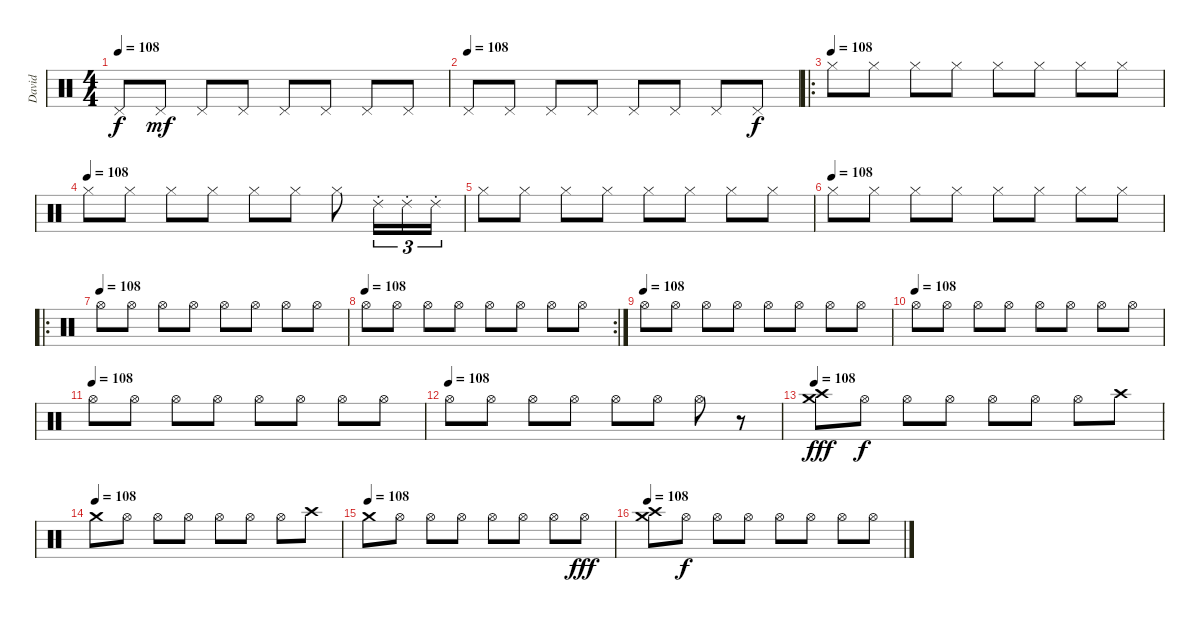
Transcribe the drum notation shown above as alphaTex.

\track ("David" "David") {instrument percussion}
\staff {score}
\articulation defaults
\ts (4 4)
\tempo 108
\clef neutral
\ks c "Pedal Hi-Hat (hit)".8{dy f} "Pedal Hi-Hat (hit)".8{dy mf} "Pedal Hi-Hat (hit)".8 "Pedal Hi-Hat (hit)".8 "Pedal Hi-Hat (hit)".8 "Pedal Hi-Hat (hit)".8 "Pedal Hi-Hat (hit)".8 "Pedal Hi-Hat (hit)".8
|
\tempo (108)
"Pedal Hi-Hat (hit)".8 "Pedal Hi-Hat (hit)".8 "Pedal Hi-Hat (hit)".8 "Pedal Hi-Hat (hit)".8 "Pedal Hi-Hat (hit)".8 "Pedal Hi-Hat (hit)".8 "Pedal Hi-Hat (hit)".8 "Pedal Hi-Hat (hit)".8{dy f} |
\ro
\tempo (108)
"Hi-Hat (closed)".8 "Hi-Hat (closed)".8 "Hi-Hat (closed)".8 "Hi-Hat (closed)".8 "Hi-Hat (closed)".8 "Hi-Hat (closed)".8 "Hi-Hat (closed)".8 "Hi-Hat (closed)".8 |
\tempo (108)
"Hi-Hat (closed)".8 "Hi-Hat (closed)".8 "Hi-Hat (closed)".8 "Hi-Hat (closed)".8 "Hi-Hat (closed)".8 "Hi-Hat (closed)".8 "Hi-Hat (closed)".8 "Ride (choke) 2".16{tu (3 2)} "Ride (choke) 2".16{tu (3 2)} "Ride (choke) 2".16{tu (3 2)} |
"Hi-Hat (closed)".8 "Hi-Hat (closed)".8 "Hi-Hat (closed)".8 "Hi-Hat (closed)".8 "Hi-Hat (closed)".8 "Hi-Hat (closed)".8 "Hi-Hat (closed)".8 "Hi-Hat (closed)".8 |
\tempo (108)
"Hi-Hat (closed)".8 "Hi-Hat (closed)".8 "Hi-Hat (closed)".8 "Hi-Hat (closed)".8 "Hi-Hat (closed)".8 "Hi-Hat (closed)".8 "Hi-Hat (closed)".8 "Hi-Hat (closed)".8 |
\ro
\tempo (108)
"Hi-Hat (open)".8 "Hi-Hat (open)".8 "Hi-Hat (open)".8 "Hi-Hat (open)".8 "Hi-Hat (open)".8 "Hi-Hat (open)".8 "Hi-Hat (open)".8 "Hi-Hat (open)".8 |
\rc 2
\tempo (108)
"Hi-Hat (open)".8 "Hi-Hat (open)".8 "Hi-Hat (open)".8 "Hi-Hat (open)".8 "Hi-Hat (open)".8 "Hi-Hat (open)".8 "Hi-Hat (open)".8 "Hi-Hat (open)".8 |
\tempo (108)
"Hi-Hat (open)".8 "Hi-Hat (open)".8 "Hi-Hat (open)".8 "Hi-Hat (open)".8 "Hi-Hat (open)".8 "Hi-Hat (open)".8 "Hi-Hat (open)".8 "Hi-Hat (open)".8 |
\tempo (108)
"Hi-Hat (open)".8 "Hi-Hat (open)".8 "Hi-Hat (open)".8 "Hi-Hat (open)".8 "Hi-Hat (open)".8 "Hi-Hat (open)".8 "Hi-Hat (open)".8 "Hi-Hat (open)".8 |
\tempo (108)
"Hi-Hat (open)".8 "Hi-Hat (open)".8 "Hi-Hat (open)".8 "Hi-Hat (open)".8 "Hi-Hat (open)".8 "Hi-Hat (open)".8 "Hi-Hat (open)".8 "Hi-Hat (open)".8 |
\tempo (108)
"Hi-Hat (open)".8 "Hi-Hat (open)".8 "Hi-Hat (open)".8 "Hi-Hat (open)".8 "Hi-Hat (open)".8 "Hi-Hat (open)".8 "Hi-Hat (open)".8 r.8 |
\tempo 108
("Crash medium (hit)" "Crash high (hit)").8{dy fff} "Hi-Hat (open)".8{dy f} "Hi-Hat (open)".8 "Hi-Hat (open)".8 "Hi-Hat (open)".8 "Hi-Hat (open)".8 "Hi-Hat (open)".8 "Crash high (hit)".8 |
\tempo (108)
"Crash medium (hit)".8 "Hi-Hat (open)".8 "Hi-Hat (open)".8 "Hi-Hat (open)".8 "Hi-Hat (open)".8 "Hi-Hat (open)".8 "Hi-Hat (open)".8 "Crash high (hit)".8 |
\tempo (108)
"Crash medium (hit)".8 "Hi-Hat (open)".8 "Hi-Hat (open)".8 "Hi-Hat (open)".8 "Hi-Hat (open)".8 "Hi-Hat (open)".8 "Hi-Hat (open)".8 "Hi-Hat (open)".8{dy fff} |
\tempo 108
("Crash medium (hit)" "Crash high (hit)").8 "Hi-Hat (open)".8{dy f} "Hi-Hat (open)".8 "Hi-Hat (open)".8 "Hi-Hat (open)".8 "Hi-Hat (open)".8 "Hi-Hat (open)".8 "Hi-Hat (open)".8
